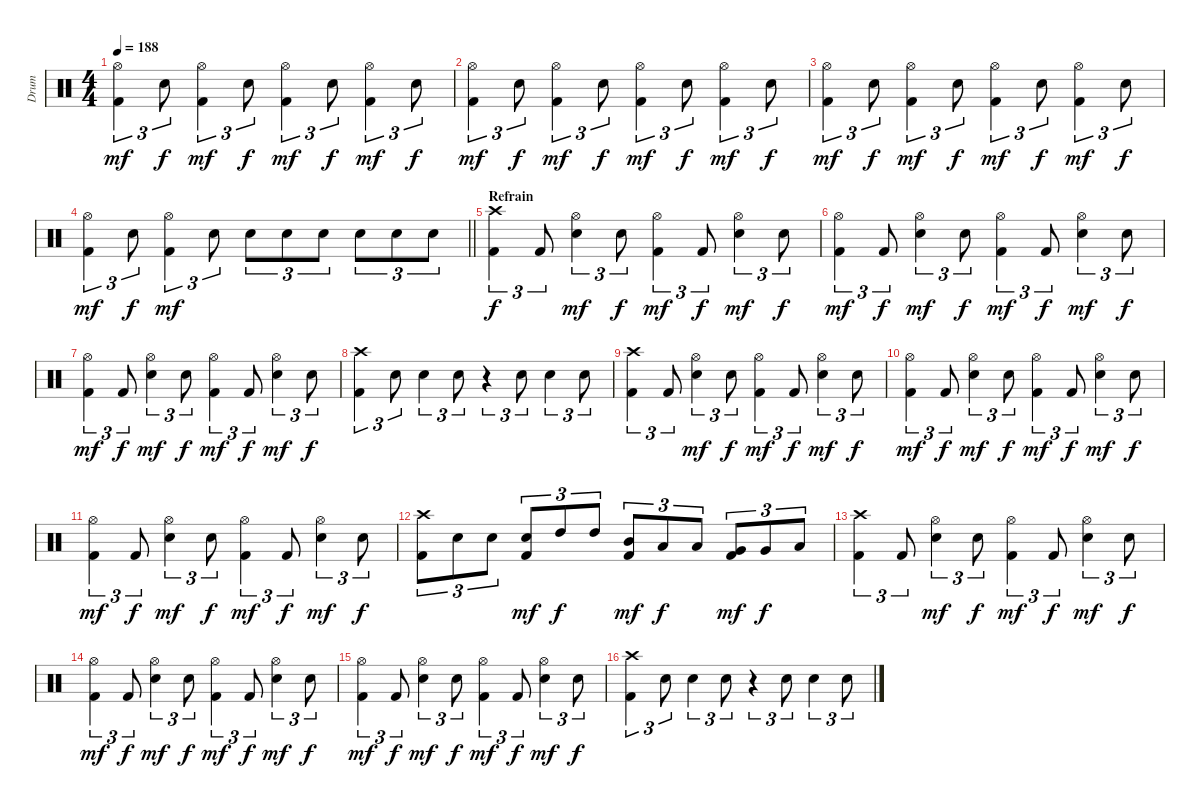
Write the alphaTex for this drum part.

\track ("Drum" "Drum") {instrument percussion}
\staff {score}
\articulation defaults
\ts (4 4)
\tempo 188
\clef neutral
\ks c
("Kick (hit) 2" "Hi-Hat (open)").4{tu (3 2) dy mf} "Snare (hit) 2".8{tu (3 2) dy f} ("Kick (hit) 2" "Hi-Hat (open)").4{tu (3 2) dy mf} "Snare (hit) 2".8{tu (3 2) dy f} ("Hi-Hat (open)" "Kick (hit) 2").4{tu (3 2) dy mf} "Snare (hit) 2".8{tu (3 2) dy f} ("Kick (hit) 2" "Hi-Hat (open)").4{tu (3 2) dy mf} "Snare (hit) 2".8{tu (3 2) dy f} |
("Kick (hit) 2" "Hi-Hat (open)").4{tu (3 2) dy mf} "Snare (hit) 2".8{tu (3 2) dy f} ("Kick (hit) 2" "Hi-Hat (open)").4{tu (3 2) dy mf} "Snare (hit) 2".8{tu (3 2) dy f} ("Hi-Hat (open)" "Kick (hit) 2").4{tu (3 2) dy mf} "Snare (hit) 2".8{tu (3 2) dy f} ("Kick (hit) 2" "Hi-Hat (open)").4{tu (3 2) dy mf} "Snare (hit) 2".8{tu (3 2) dy f} |
("Kick (hit) 2" "Hi-Hat (open)").4{tu (3 2) dy mf} "Snare (hit) 2".8{tu (3 2) dy f} ("Kick (hit) 2" "Hi-Hat (open)").4{tu (3 2) dy mf} "Snare (hit) 2".8{tu (3 2) dy f} ("Hi-Hat (open)" "Kick (hit) 2").4{tu (3 2) dy mf} "Snare (hit) 2".8{tu (3 2) dy f} ("Kick (hit) 2" "Hi-Hat (open)").4{tu (3 2) dy mf} "Snare (hit) 2".8{tu (3 2) dy f} |
\barLineRight lightlight
("Kick (hit) 2" "Hi-Hat (open)").4{tu (3 2) dy mf} "Snare (hit) 2".8{tu (3 2) dy f} ("Kick (hit) 2" "Hi-Hat (open)").4{tu (3 2) dy mf} "Snare (hit) 2".8{tu (3 2)} "Snare (hit) 2".8{tu (3 2)} "Snare (hit) 2".8{tu (3 2)} "Snare (hit) 2".8{tu (3 2)} "Snare (hit) 2".8{tu (3 2)} "Snare (hit) 2".8{tu (3 2)} "Snare (hit) 2".8{tu (3 2)} |
\section ("" "Refrain")
("Kick (hit) 2" "Crash high (hit)").4{tu (3 2) dy f} "Kick (hit) 2".8{tu (3 2)} ("Snare (hit) 2" "Hi-Hat (open)").4{tu (3 2) dy mf} "Snare (hit) 2".8{tu (3 2) dy f} ("Kick (hit) 2" "Hi-Hat (open)").4{tu (3 2) dy mf} "Kick (hit) 2".8{tu (3 2) dy f} ("Snare (hit) 2" "Hi-Hat (open)").4{tu (3 2) dy mf} "Snare (hit) 2".8{tu (3 2) dy f} |
("Kick (hit) 2" "Hi-Hat (open)").4{tu (3 2) dy mf} "Kick (hit) 2".8{tu (3 2) dy f} ("Snare (hit) 2" "Hi-Hat (open)").4{tu (3 2) dy mf} "Snare (hit) 2".8{tu (3 2) dy f} ("Kick (hit) 2" "Hi-Hat (open)").4{tu (3 2) dy mf} "Kick (hit) 2".8{tu (3 2) dy f} ("Snare (hit) 2" "Hi-Hat (open)").4{tu (3 2) dy mf} "Snare (hit) 2".8{tu (3 2) dy f} |
("Kick (hit) 2" "Hi-Hat (open)").4{tu (3 2) dy mf} "Kick (hit) 2".8{tu (3 2) dy f} ("Snare (hit) 2" "Hi-Hat (open)").4{tu (3 2) dy mf} "Snare (hit) 2".8{tu (3 2) dy f} ("Kick (hit) 2" "Hi-Hat (open)").4{tu (3 2) dy mf} "Kick (hit) 2".8{tu (3 2) dy f} ("Snare (hit) 2" "Hi-Hat (open)").4{tu (3 2) dy mf} "Snare (hit) 2".8{tu (3 2) dy f} |
("Kick (hit) 2" "Crash high (hit)").4{tu (3 2)} "Snare (hit) 2".8{tu (3 2)} "Snare (hit) 2".4{tu (3 2)} "Snare (hit) 2".8{tu (3 2)} r.4{tu (3 2)} "Snare (hit) 2".8{tu (3 2)} "Snare (hit) 2".4{tu (3 2)} "Snare (hit) 2".8{tu (3 2)} |
("Kick (hit) 2" "Crash high (hit)").4{tu (3 2)} "Kick (hit) 2".8{tu (3 2)} ("Snare (hit) 2" "Hi-Hat (open)").4{tu (3 2) dy mf} "Snare (hit) 2".8{tu (3 2) dy f} ("Kick (hit) 2" "Hi-Hat (open)").4{tu (3 2) dy mf} "Kick (hit) 2".8{tu (3 2) dy f} ("Snare (hit) 2" "Hi-Hat (open)").4{tu (3 2) dy mf} "Snare (hit) 2".8{tu (3 2) dy f} |
("Kick (hit) 2" "Hi-Hat (open)").4{tu (3 2) dy mf} "Kick (hit) 2".8{tu (3 2) dy f} ("Snare (hit) 2" "Hi-Hat (open)").4{tu (3 2) dy mf} "Snare (hit) 2".8{tu (3 2) dy f} ("Kick (hit) 2" "Hi-Hat (open)").4{tu (3 2) dy mf} "Kick (hit) 2".8{tu (3 2) dy f} ("Snare (hit) 2" "Hi-Hat (open)").4{tu (3 2) dy mf} "Snare (hit) 2".8{tu (3 2) dy f} |
("Kick (hit) 2" "Hi-Hat (open)").4{tu (3 2) dy mf} "Kick (hit) 2".8{tu (3 2) dy f} ("Snare (hit) 2" "Hi-Hat (open)").4{tu (3 2) dy mf} "Snare (hit) 2".8{tu (3 2) dy f} ("Kick (hit) 2" "Hi-Hat (open)").4{tu (3 2) dy mf} "Kick (hit) 2".8{tu (3 2) dy f} ("Snare (hit) 2" "Hi-Hat (open)").4{tu (3 2) dy mf} "Snare (hit) 2".8{tu (3 2) dy f} |
("Kick (hit) 2" "Crash high (hit)").8{tu (3 2)} "Snare (hit) 2".8{tu (3 2)} "Snare (hit) 2".8{tu (3 2)} ("Snare (hit) 2" "Kick (hit) 2").8{tu (3 2) dy mf} "High Tom (hit)".8{tu (3 2) dy f} "High Tom (hit)".8{tu (3 2)} ("Mid Tom (hit)" "Kick (hit) 2").8{tu (3 2) dy mf} "Low Tom (hit)".8{tu (3 2) dy f} "Low Tom (hit)".8{tu (3 2)} ("Very Low Tom (hit)" "Kick (hit) 2").8{tu (3 2) dy mf} "Very Low Tom (hit)".8{tu (3 2) dy f} "Low Floor Tom (hit)".8{tu (3 2)} |
("Kick (hit) 2" "Crash high (hit)").4{tu (3 2)} "Kick (hit) 2".8{tu (3 2)} ("Snare (hit) 2" "Hi-Hat (open)").4{tu (3 2) dy mf} "Snare (hit) 2".8{tu (3 2) dy f} ("Kick (hit) 2" "Hi-Hat (open)").4{tu (3 2) dy mf} "Kick (hit) 2".8{tu (3 2) dy f} ("Snare (hit) 2" "Hi-Hat (open)").4{tu (3 2) dy mf} "Snare (hit) 2".8{tu (3 2) dy f} |
("Kick (hit) 2" "Hi-Hat (open)").4{tu (3 2) dy mf} "Kick (hit) 2".8{tu (3 2) dy f} ("Snare (hit) 2" "Hi-Hat (open)").4{tu (3 2) dy mf} "Snare (hit) 2".8{tu (3 2) dy f} ("Kick (hit) 2" "Hi-Hat (open)").4{tu (3 2) dy mf} "Kick (hit) 2".8{tu (3 2) dy f} ("Snare (hit) 2" "Hi-Hat (open)").4{tu (3 2) dy mf} "Snare (hit) 2".8{tu (3 2) dy f} |
("Kick (hit) 2" "Hi-Hat (open)").4{tu (3 2) dy mf} "Kick (hit) 2".8{tu (3 2) dy f} ("Snare (hit) 2" "Hi-Hat (open)").4{tu (3 2) dy mf} "Snare (hit) 2".8{tu (3 2) dy f} ("Kick (hit) 2" "Hi-Hat (open)").4{tu (3 2) dy mf} "Kick (hit) 2".8{tu (3 2) dy f} ("Snare (hit) 2" "Hi-Hat (open)").4{tu (3 2) dy mf} "Snare (hit) 2".8{tu (3 2) dy f} |
("Kick (hit) 2" "Crash high (hit)").4{tu (3 2)} "Snare (hit) 2".8{tu (3 2)} "Snare (hit) 2".4{tu (3 2)} "Snare (hit) 2".8{tu (3 2)} r.4{tu (3 2)} "Snare (hit) 2".8{tu (3 2)} "Snare (hit) 2".4{tu (3 2)} "Snare (hit) 2".8{tu (3 2)}
